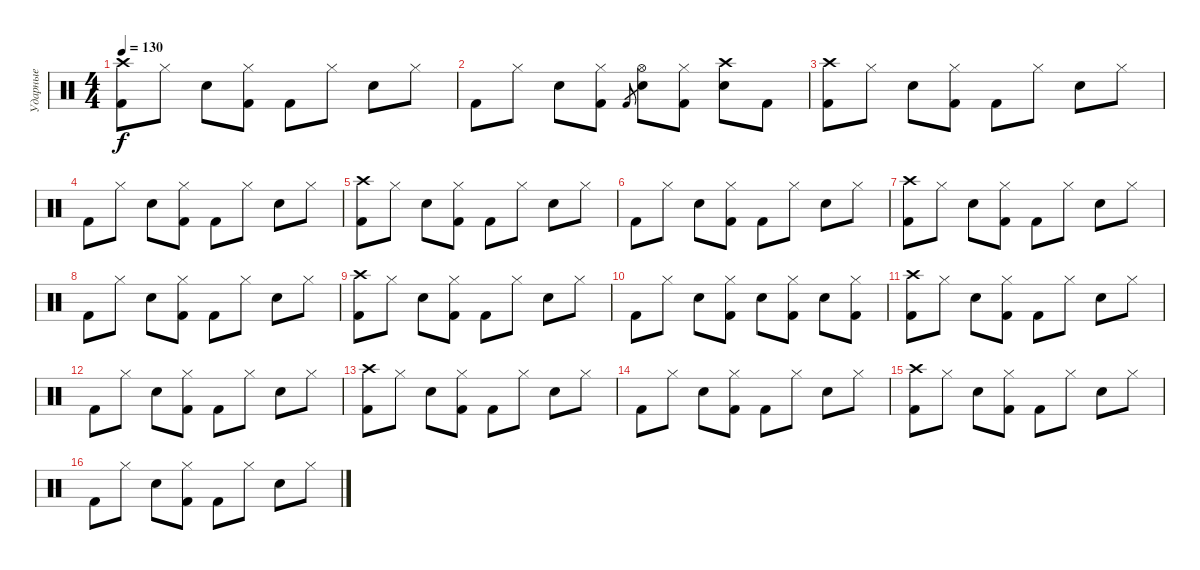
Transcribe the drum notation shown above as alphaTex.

\track ("Ударные" "Ударные") {instrument percussion}
\staff {score}
\articulation defaults
\ts (4 4)
\tempo 130
\clef neutral
\ks c
("Kick (hit) 2" "Crash high (hit)").8{dy f} "Hi-Hat (closed)".8 "Electric Snare (hit)".8 ("Kick (hit) 2" "Hi-Hat (closed)").8 "Kick (hit) 2".8 "Hi-Hat (closed)".8 "Electric Snare (hit)".8 "Hi-Hat (closed)".8 |
"Kick (hit) 2".8 "Hi-Hat (closed)".8 "Electric Snare (hit)".8 ("Kick (hit) 2" "Hi-Hat (closed)").8 "Kick (hit) 2".8{gr} ("Electric Snare (hit)" "Hi-Hat (open)").8 ("Kick (hit) 2" "Hi-Hat (closed)").8 ("Electric Snare (hit)" "Crash high (hit)").8 "Kick (hit) 2".8 |
("Kick (hit) 2" "Crash high (hit)").8 "Hi-Hat (closed)".8 "Electric Snare (hit)".8 ("Kick (hit) 2" "Hi-Hat (closed)").8 "Kick (hit) 2".8 "Hi-Hat (closed)".8 "Electric Snare (hit)".8 "Hi-Hat (closed)".8 |
"Kick (hit) 2".8 "Hi-Hat (closed)".8 "Electric Snare (hit)".8 ("Kick (hit) 2" "Hi-Hat (closed)").8 "Kick (hit) 2".8 "Hi-Hat (closed)".8 "Electric Snare (hit)".8 "Hi-Hat (closed)".8 |
("Kick (hit) 2" "Crash high (hit)").8 "Hi-Hat (closed)".8 "Electric Snare (hit)".8 ("Kick (hit) 2" "Hi-Hat (closed)").8 "Kick (hit) 2".8 "Hi-Hat (closed)".8 "Electric Snare (hit)".8 "Hi-Hat (closed)".8 |
"Kick (hit) 2".8 "Hi-Hat (closed)".8 "Electric Snare (hit)".8 ("Kick (hit) 2" "Hi-Hat (closed)").8 "Kick (hit) 2".8 "Hi-Hat (closed)".8 "Electric Snare (hit)".8 "Hi-Hat (closed)".8 |
("Kick (hit) 2" "Crash high (hit)").8 "Hi-Hat (closed)".8 "Electric Snare (hit)".8 ("Kick (hit) 2" "Hi-Hat (closed)").8 "Kick (hit) 2".8 "Hi-Hat (closed)".8 "Electric Snare (hit)".8 "Hi-Hat (closed)".8 |
"Kick (hit) 2".8 "Hi-Hat (closed)".8 "Electric Snare (hit)".8 ("Kick (hit) 2" "Hi-Hat (closed)").8 "Kick (hit) 2".8 "Hi-Hat (closed)".8 "Electric Snare (hit)".8 "Hi-Hat (closed)".8 |
("Kick (hit) 2" "Crash high (hit)").8 "Hi-Hat (closed)".8 "Electric Snare (hit)".8 ("Kick (hit) 2" "Hi-Hat (closed)").8 "Kick (hit) 2".8 "Hi-Hat (closed)".8 "Electric Snare (hit)".8 "Hi-Hat (closed)".8 |
"Kick (hit) 2".8 "Hi-Hat (closed)".8 "Electric Snare (hit)".8 ("Kick (hit) 2" "Hi-Hat (closed)").8 "Electric Snare (hit)".8 ("Kick (hit) 2" "Hi-Hat (closed)").8 "Electric Snare (hit)".8 ("Kick (hit) 2" "Hi-Hat (closed)").8 |
("Kick (hit) 2" "Crash high (hit)").8 "Hi-Hat (closed)".8 "Electric Snare (hit)".8 ("Kick (hit) 2" "Hi-Hat (closed)").8 "Kick (hit) 2".8 "Hi-Hat (closed)".8 "Electric Snare (hit)".8 "Hi-Hat (closed)".8 |
"Kick (hit) 2".8 "Hi-Hat (closed)".8 "Electric Snare (hit)".8 ("Kick (hit) 2" "Hi-Hat (closed)").8 "Kick (hit) 2".8 "Hi-Hat (closed)".8 "Electric Snare (hit)".8 "Hi-Hat (closed)".8 |
("Kick (hit) 2" "Crash high (hit)").8 "Hi-Hat (closed)".8 "Electric Snare (hit)".8 ("Kick (hit) 2" "Hi-Hat (closed)").8 "Kick (hit) 2".8 "Hi-Hat (closed)".8 "Electric Snare (hit)".8 "Hi-Hat (closed)".8 |
"Kick (hit) 2".8 "Hi-Hat (closed)".8 "Electric Snare (hit)".8 ("Kick (hit) 2" "Hi-Hat (closed)").8 "Kick (hit) 2".8 "Hi-Hat (closed)".8 "Electric Snare (hit)".8 "Hi-Hat (closed)".8 |
("Kick (hit) 2" "Crash high (hit)").8 "Hi-Hat (closed)".8 "Electric Snare (hit)".8 ("Kick (hit) 2" "Hi-Hat (closed)").8 "Kick (hit) 2".8 "Hi-Hat (closed)".8 "Electric Snare (hit)".8 "Hi-Hat (closed)".8 |
"Kick (hit) 2".8 "Hi-Hat (closed)".8 "Electric Snare (hit)".8 ("Kick (hit) 2" "Hi-Hat (closed)").8 "Kick (hit) 2".8 "Hi-Hat (closed)".8 "Electric Snare (hit)".8 "Hi-Hat (closed)".8
